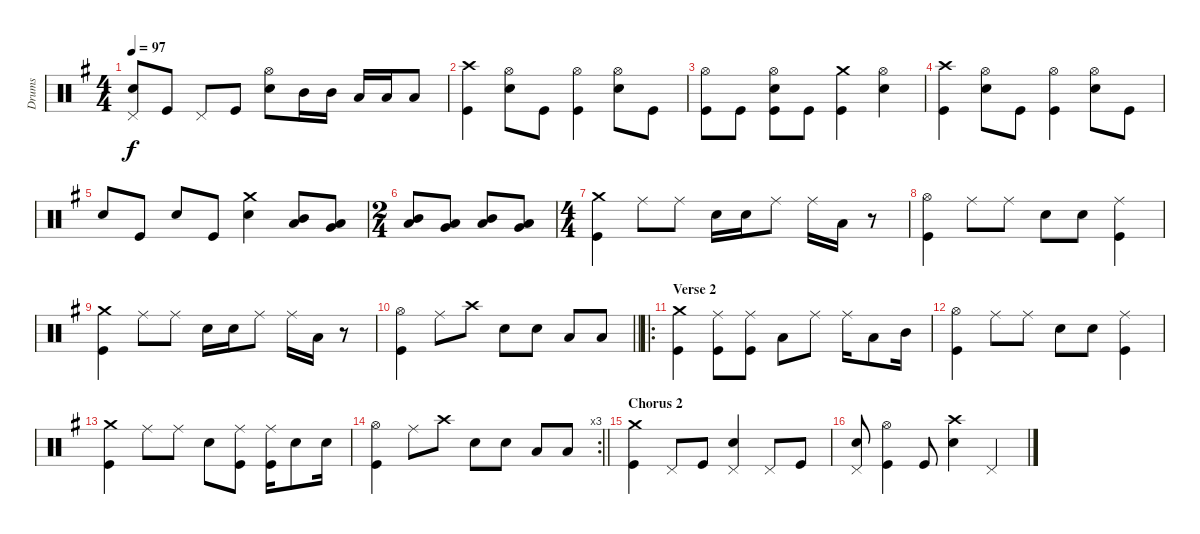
\track ("Drums" "Drums") {instrument percussion}
\staff {score}
\articulation defaults
\ts (4 4)
\tempo 97
\clef neutral
\ks g
("Pedal Hi-Hat (hit)" "Snare (hit) 2").8{dy f} "Kick (hit)".8 "Pedal Hi-Hat (hit)".8 "Kick (hit)".8 ("Hi-Hat (open)" "Snare (hit) 2").8 "Mid Tom (hit)".16 "Mid Tom (hit)".16 "Low Tom (hit)".16 "Low Tom (hit)".16 "Low Tom (hit)".8 |
("Crash high (hit)" "Kick (hit)").4 ("Hi-Hat (open)" "Snare (hit) 2").8 "Kick (hit)".8 ("Hi-Hat (open)" "Kick (hit)").4 ("Hi-Hat (open)" "Snare (hit) 2").8 "Kick (hit)".8 |
("Hi-Hat (open)" "Kick (hit)").8 "Kick (hit)".8 ("Hi-Hat (open)" "Snare (hit) 2" "Kick (hit)").8 "Kick (hit)".8 ("Crash medium (hit)" "Kick (hit)").4 ("Hi-Hat (open)" "Snare (hit) 2").4 |
("Crash high (hit)" "Kick (hit)").4 ("Hi-Hat (open)" "Snare (hit) 2").8 "Kick (hit)".8 ("Hi-Hat (open)" "Kick (hit)").4 ("Hi-Hat (open)" "Snare (hit) 2").8 "Kick (hit)".8 |
"Snare (hit) 2".8 "Kick (hit)".8 "Snare (hit) 2".8 "Kick (hit)".8 ("Crash medium (hit)" "Snare (hit) 2").4 ("Mid Tom (hit)" "Low Tom (hit)").8 ("Very Low Tom (hit)" "Low Tom (hit)").8 |
\ts (2 4)
("Mid Tom (hit)" "Low Tom (hit)").8 ("Very Low Tom (hit)" "Low Tom (hit)").8 ("Mid Tom (hit)" "Low Tom (hit)").8 ("Very Low Tom (hit)" "Low Tom (hit)").8 |
\ts (4 4)
("Crash medium (hit)" "Kick (hit)").4 "Ride (middle)".8 "Ride (middle)".8 "Snare (hit) 2".16 "Snare (hit) 2".16 "Ride (middle)".8 "Ride (middle)".16 "Low Tom (hit)".16 r.8 |
("Hi-Hat (open)" "Kick (hit)").4 "Ride (middle)".8 "Ride (middle)".8 "Snare (hit) 2".8 "Snare (hit) 2".8 ("Ride (middle)" "Kick (hit)").4 |
("Crash medium (hit)" "Kick (hit)").4 "Ride (middle)".8 "Ride (middle)".8 "Snare (hit) 2".16 "Snare (hit) 2".16 "Ride (middle)".8 "Ride (middle)".16 "Low Tom (hit)".16 r.8 |
\barLineRight lightlight
("Hi-Hat (open)" "Kick (hit)").4 "Ride (middle)".8 "Crash high (hit)".8 "Snare (hit) 2".8 "Snare (hit) 2".8 "Low Tom (hit)".8 "Low Tom (hit)".8 |
\ro
\section ("" "Verse 2")
("Crash medium (hit)" "Kick (hit)").4 ("Ride (middle)" "Kick (hit)").8 ("Ride (middle)" "Kick (hit)").8 "Low Tom (hit)".8 "Ride (middle)".8 "Ride (middle)".16 "Low Tom (hit)".8 "Mid Tom (hit)".16 |
("Hi-Hat (open)" "Kick (hit)").4 "Ride (middle)".8 "Ride (middle)".8 "Snare (hit) 2".8 "Snare (hit) 2".8 ("Ride (middle)" "Kick (hit)").4 |
("Crash medium (hit)" "Kick (hit)").4 "Ride (middle)".8 "Ride (middle)".8 "Snare (hit) 2".8 ("Ride (middle)" "Kick (hit)").8 ("Ride (middle)" "Kick (hit)").16 "Snare (hit) 2".8 "Snare (hit) 2".16 |
\rc 3
\barLineRight lightlight
("Hi-Hat (open)" "Kick (hit)").4 "Ride (middle)".8 "Crash high (hit)".8 "Snare (hit) 2".8 "Snare (hit) 2".8 "Low Tom (hit)".8 "Low Tom (hit)".8 |
\section ("" "Chorus 2")
("Crash medium (hit)" "Kick (hit)").4 "Pedal Hi-Hat (hit)".8 "Kick (hit)".8 ("Pedal Hi-Hat (hit)" "Snare (hit) 2").4 "Pedal Hi-Hat (hit)".8 "Kick (hit)".8 |
("Pedal Hi-Hat (hit)" "Snare (hit) 2").8 ("Hi-Hat (open)" "Kick (hit)").4 "Kick (hit)".8 ("Crash high (hit)" "Snare (hit) 2").4 "Pedal Hi-Hat (hit)".4
